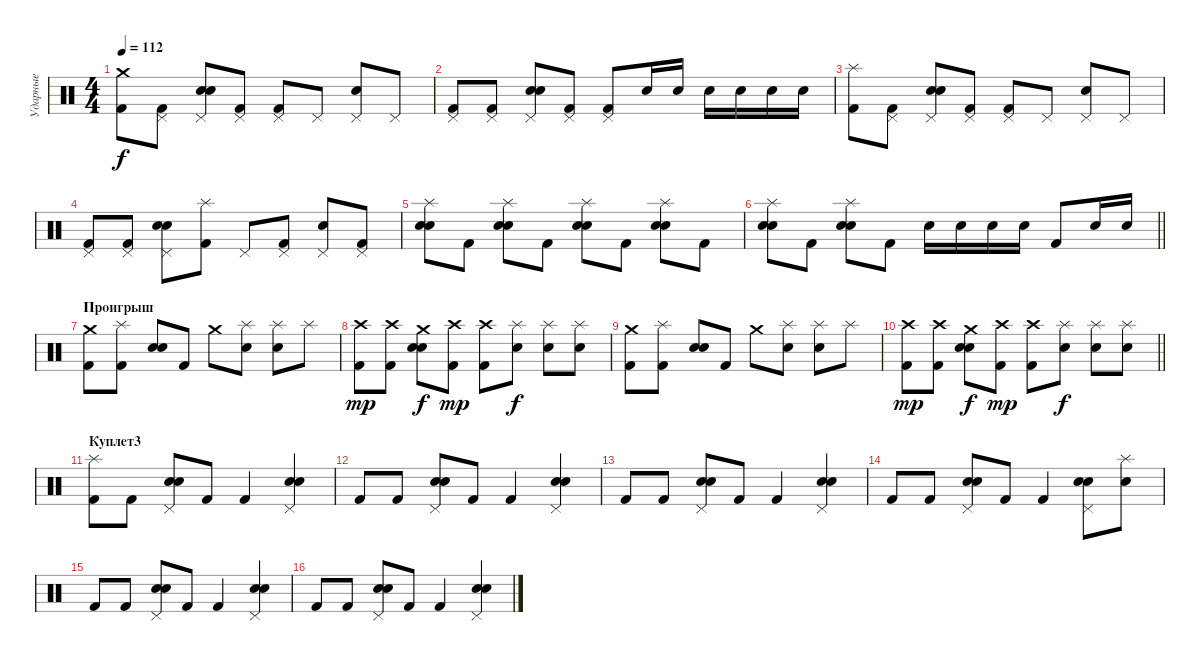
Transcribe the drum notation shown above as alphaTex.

\track ("Ударные" "Ударные") {instrument percussion}
\staff {score}
\articulation defaults
\ts (4 4)
\tempo 112
\clef neutral
\ks c
("Crash medium (hit)" "Kick (hit) 2").8{dy f} ("Pedal Hi-Hat (hit)" "Kick (hit) 2").8 ("Pedal Hi-Hat (hit)" "Electric Snare (hit)" "Snare (hit) 2").8 ("Pedal Hi-Hat (hit)" "Kick (hit) 2").8 ("Pedal Hi-Hat (hit)" "Kick (hit) 2").8 "Pedal Hi-Hat (hit)".8 ("Pedal Hi-Hat (hit)" "Electric Snare (hit)").8 "Pedal Hi-Hat (hit)".8 |
("Pedal Hi-Hat (hit)" "Kick (hit) 2").8 ("Pedal Hi-Hat (hit)" "Kick (hit) 2").8 ("Pedal Hi-Hat (hit)" "Electric Snare (hit)" "Snare (hit) 2").8 ("Pedal Hi-Hat (hit)" "Kick (hit) 2").8 ("Pedal Hi-Hat (hit)" "Kick (hit) 2").8 "Electric Snare (hit)".16 "Electric Snare (hit)".16 "Electric Snare (hit)".16 "Electric Snare (hit)".16 "Electric Snare (hit)".16 "Electric Snare (hit)".16 |
("Splash (hit)" "Kick (hit) 2").8 ("Pedal Hi-Hat (hit)" "Kick (hit) 2").8 ("Pedal Hi-Hat (hit)" "Electric Snare (hit)" "Snare (hit) 2").8 ("Pedal Hi-Hat (hit)" "Kick (hit) 2").8 ("Pedal Hi-Hat (hit)" "Kick (hit) 2").8 "Pedal Hi-Hat (hit)".8 ("Pedal Hi-Hat (hit)" "Electric Snare (hit)").8 "Pedal Hi-Hat (hit)".8 |
("Pedal Hi-Hat (hit)" "Kick (hit) 2").8 ("Pedal Hi-Hat (hit)" "Kick (hit) 2").8 ("Pedal Hi-Hat (hit)" "Electric Snare (hit)" "Snare (hit) 2").8 ("Splash (hit)" "Kick (hit) 2").8 "Pedal Hi-Hat (hit)".8 ("Pedal Hi-Hat (hit)" "Kick (hit) 2").8 ("Pedal Hi-Hat (hit)" "Electric Snare (hit)").8 ("Pedal Hi-Hat (hit)" "Kick (hit) 2").8 |
("Splash (hit)" "Electric Snare (hit)" "Snare (hit) 2").8 "Kick (hit) 2".8 ("Splash (hit)" "Electric Snare (hit)" "Snare (hit) 2").8 "Kick (hit) 2".8 ("Splash (hit)" "Electric Snare (hit)" "Snare (hit) 2").8 "Kick (hit) 2".8 ("Splash (hit)" "Electric Snare (hit)" "Snare (hit) 2").8 "Kick (hit) 2".8 |
\barLineRight lightlight
("Splash (hit)" "Electric Snare (hit)" "Snare (hit) 2").8 "Kick (hit) 2".8 ("Splash (hit)" "Electric Snare (hit)" "Snare (hit) 2").8 "Kick (hit) 2".8 "Electric Snare (hit)".16 "Electric Snare (hit)".16 "Electric Snare (hit)".16 "Electric Snare (hit)".16 "Kick (hit) 2".8 "Electric Snare (hit)".16 "Electric Snare (hit)".16 |
\section ("" "Проигрыш")
("Crash medium (hit)" "Kick (hit) 2").8 ("Splash (hit)" "Kick (hit) 2").8 ("Electric Snare (hit)" "Snare (hit) 2").8 "Kick (hit) 2".8 "Crash medium (hit)".8 ("Splash (hit)" "Electric Snare (hit)").8 ("Splash (hit)" "Electric Snare (hit)").8 "Splash (hit)".8 |
("Crash high (hit)" "Kick (hit) 2").8{dy mp} ("Crash high (hit)" "Kick (hit) 2").8 ("Crash medium (hit)" "Electric Snare (hit)" "Snare (hit) 2").8{dy f} ("Crash high (hit)" "Kick (hit) 2").8{dy mp} ("Crash high (hit)" "Kick (hit) 2").8 ("Splash (hit)" "Electric Snare (hit)").8{dy f} ("Splash (hit)" "Electric Snare (hit)").8 ("Splash (hit)" "Electric Snare (hit)").8 |
("Crash medium (hit)" "Kick (hit) 2").8 ("Splash (hit)" "Kick (hit) 2").8 ("Electric Snare (hit)" "Snare (hit) 2").8 "Kick (hit) 2".8 "Crash medium (hit)".8 ("Splash (hit)" "Electric Snare (hit)").8 ("Splash (hit)" "Electric Snare (hit)").8 "Splash (hit)".8 |
\barLineRight lightlight
("Crash high (hit)" "Kick (hit) 2").8{dy mp} ("Crash high (hit)" "Kick (hit) 2").8 ("Crash medium (hit)" "Electric Snare (hit)" "Snare (hit) 2").8{dy f} ("Crash high (hit)" "Kick (hit) 2").8{dy mp} ("Crash high (hit)" "Kick (hit) 2").8 ("Splash (hit)" "Electric Snare (hit)").8{dy f} ("Splash (hit)" "Electric Snare (hit)").8 ("Splash (hit)" "Electric Snare (hit)").8 |
\section ("" "Куплет3")
("Splash (hit)" "Kick (hit) 2").8 "Kick (hit) 2".8 ("Pedal Hi-Hat (hit)" "Electric Snare (hit)" "Snare (hit) 2").8 "Kick (hit) 2".8 "Kick (hit) 2".4 ("Pedal Hi-Hat (hit)" "Electric Snare (hit)" "Snare (hit) 2").4 |
"Kick (hit) 2".8 "Kick (hit) 2".8 ("Pedal Hi-Hat (hit)" "Electric Snare (hit)" "Snare (hit) 2").8 "Kick (hit) 2".8 "Kick (hit) 2".4 ("Pedal Hi-Hat (hit)" "Electric Snare (hit)" "Snare (hit) 2").4 |
"Kick (hit) 2".8 "Kick (hit) 2".8 ("Pedal Hi-Hat (hit)" "Electric Snare (hit)" "Snare (hit) 2").8 "Kick (hit) 2".8 "Kick (hit) 2".4 ("Pedal Hi-Hat (hit)" "Electric Snare (hit)" "Snare (hit) 2").4 |
"Kick (hit) 2".8 "Kick (hit) 2".8 ("Pedal Hi-Hat (hit)" "Electric Snare (hit)" "Snare (hit) 2").8 "Kick (hit) 2".8 "Kick (hit) 2".4 ("Pedal Hi-Hat (hit)" "Electric Snare (hit)" "Snare (hit) 2").8 ("Splash (hit)" "Electric Snare (hit)").8 |
"Kick (hit) 2".8 "Kick (hit) 2".8 ("Pedal Hi-Hat (hit)" "Electric Snare (hit)" "Snare (hit) 2").8 "Kick (hit) 2".8 "Kick (hit) 2".4 ("Pedal Hi-Hat (hit)" "Electric Snare (hit)" "Snare (hit) 2").4 |
"Kick (hit) 2".8 "Kick (hit) 2".8 ("Pedal Hi-Hat (hit)" "Electric Snare (hit)" "Snare (hit) 2").8 "Kick (hit) 2".8 "Kick (hit) 2".4 ("Pedal Hi-Hat (hit)" "Electric Snare (hit)" "Snare (hit) 2").4
